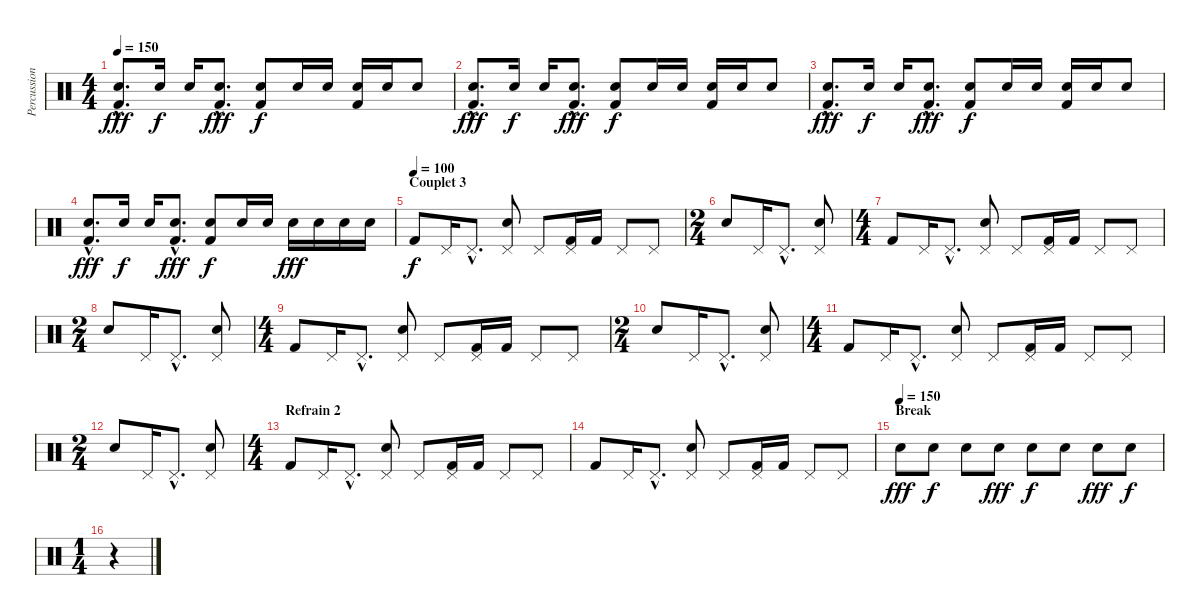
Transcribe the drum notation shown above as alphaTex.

\track ("Percussions" "Percussion") {instrument percussion}
\staff {score}
\articulation defaults
\ts (4 4)
\tempo 150
\clef neutral
\ks c
("Electric Snare (hit)"{hac} "Kick (hit) 2"{hac}).8{d dy fff} "Electric Snare (hit)".16{dy f} "Electric Snare (hit)".16 ("Electric Snare (hit)"{hac} "Kick (hit) 2"{hac}).8{d dy fff} ("Electric Snare (hit)" "Kick (hit) 2").8{dy f} "Electric Snare (hit)".16 "Electric Snare (hit)".16 ("Electric Snare (hit)" "Kick (hit) 2").16 "Electric Snare (hit)".16 "Electric Snare (hit)".8 |
("Electric Snare (hit)"{hac} "Kick (hit) 2"{hac}).8{d dy fff} "Electric Snare (hit)".16{dy f} "Electric Snare (hit)".16 ("Electric Snare (hit)"{hac} "Kick (hit) 2"{hac}).8{d dy fff} ("Electric Snare (hit)" "Kick (hit) 2").8{dy f} "Electric Snare (hit)".16 "Electric Snare (hit)".16 ("Electric Snare (hit)" "Kick (hit) 2").16 "Electric Snare (hit)".16 "Electric Snare (hit)".8 |
("Electric Snare (hit)"{hac} "Kick (hit) 2"{hac}).8{d dy fff} "Electric Snare (hit)".16{dy f} "Electric Snare (hit)".16 ("Electric Snare (hit)"{hac} "Kick (hit) 2"{hac}).8{d dy fff} ("Electric Snare (hit)" "Kick (hit) 2").8{dy f} "Electric Snare (hit)".16 "Electric Snare (hit)".16 ("Electric Snare (hit)" "Kick (hit) 2").16 "Electric Snare (hit)".16 "Electric Snare (hit)".8 |
("Electric Snare (hit)"{hac} "Kick (hit) 2"{hac}).8{d dy fff} "Electric Snare (hit)".16{dy f} "Electric Snare (hit)".16 ("Electric Snare (hit)"{hac} "Kick (hit) 2"{hac}).8{d dy fff} ("Electric Snare (hit)" "Kick (hit) 2").8{dy f} "Electric Snare (hit)".16 "Electric Snare (hit)".16 "Electric Snare (hit)".16{dy fff} "Electric Snare (hit)".16 "Electric Snare (hit)".16 "Electric Snare (hit)".16 |
\section ("" "Couplet 3")
\tempo (100)
"Kick (hit) 2".8{dy f} "Pedal Hi-Hat (hit)".16 "Pedal Hi-Hat (hit)"{hac}.8{d} ("Pedal Hi-Hat (hit)" "Electric Snare (hit)").8 "Pedal Hi-Hat (hit)".8 ("Pedal Hi-Hat (hit)" "Kick (hit) 2").16 "Kick (hit) 2".16 "Pedal Hi-Hat (hit)".8 "Pedal Hi-Hat (hit)".8 |
\ts (2 4)
"Electric Snare (hit)".8 "Pedal Hi-Hat (hit)".16 "Pedal Hi-Hat (hit)"{hac}.8{d} ("Pedal Hi-Hat (hit)" "Electric Snare (hit)").8 |
\ts (4 4)
"Kick (hit) 2".8 "Pedal Hi-Hat (hit)".16 "Pedal Hi-Hat (hit)"{hac}.8{d} ("Pedal Hi-Hat (hit)" "Electric Snare (hit)").8 "Pedal Hi-Hat (hit)".8 ("Pedal Hi-Hat (hit)" "Kick (hit) 2").16 "Kick (hit) 2".16 "Pedal Hi-Hat (hit)".8 "Pedal Hi-Hat (hit)".8 |
\ts (2 4)
"Electric Snare (hit)".8 "Pedal Hi-Hat (hit)".16 "Pedal Hi-Hat (hit)"{hac}.8{d} ("Pedal Hi-Hat (hit)" "Electric Snare (hit)").8 |
\ts (4 4)
"Kick (hit) 2".8 "Pedal Hi-Hat (hit)".16 "Pedal Hi-Hat (hit)"{hac}.8{d} ("Pedal Hi-Hat (hit)" "Electric Snare (hit)").8 "Pedal Hi-Hat (hit)".8 ("Pedal Hi-Hat (hit)" "Kick (hit) 2").16 "Kick (hit) 2".16 "Pedal Hi-Hat (hit)".8 "Pedal Hi-Hat (hit)".8 |
\ts (2 4)
"Electric Snare (hit)".8 "Pedal Hi-Hat (hit)".16 "Pedal Hi-Hat (hit)"{hac}.8{d} ("Pedal Hi-Hat (hit)" "Electric Snare (hit)").8 |
\ts (4 4)
"Kick (hit) 2".8 "Pedal Hi-Hat (hit)".16 "Pedal Hi-Hat (hit)"{hac}.8{d} ("Pedal Hi-Hat (hit)" "Electric Snare (hit)").8 "Pedal Hi-Hat (hit)".8 ("Pedal Hi-Hat (hit)" "Kick (hit) 2").16 "Kick (hit) 2".16 "Pedal Hi-Hat (hit)".8 "Pedal Hi-Hat (hit)".8 |
\ts (2 4)
"Electric Snare (hit)".8 "Pedal Hi-Hat (hit)".16 "Pedal Hi-Hat (hit)"{hac}.8{d} ("Pedal Hi-Hat (hit)" "Electric Snare (hit)").8 |
\ts (4 4)
\section ("" "Refrain 2")
"Kick (hit) 2".8 "Pedal Hi-Hat (hit)".16 "Pedal Hi-Hat (hit)"{hac}.8{d} ("Pedal Hi-Hat (hit)" "Electric Snare (hit)").8 "Pedal Hi-Hat (hit)".8 ("Pedal Hi-Hat (hit)" "Kick (hit) 2").16 "Kick (hit) 2".16 "Pedal Hi-Hat (hit)".8 "Pedal Hi-Hat (hit)".8 |
"Kick (hit) 2".8 "Pedal Hi-Hat (hit)".16 "Pedal Hi-Hat (hit)"{hac}.8{d} ("Pedal Hi-Hat (hit)" "Electric Snare (hit)").8 "Pedal Hi-Hat (hit)".8 ("Pedal Hi-Hat (hit)" "Kick (hit) 2").16 "Kick (hit) 2".16 "Pedal Hi-Hat (hit)".8 "Pedal Hi-Hat (hit)".8 |
\section ("" "Break")
\tempo (150)
"Electric Snare (hit)".8{dy fff} "Electric Snare (hit)".8{dy f} "Electric Snare (hit)".8 "Electric Snare (hit)".8{dy fff} "Electric Snare (hit)".8{dy f} "Electric Snare (hit)".8 "Electric Snare (hit)".8{dy fff} "Electric Snare (hit)".8{dy f} |
\ts (1 4)
r.4
